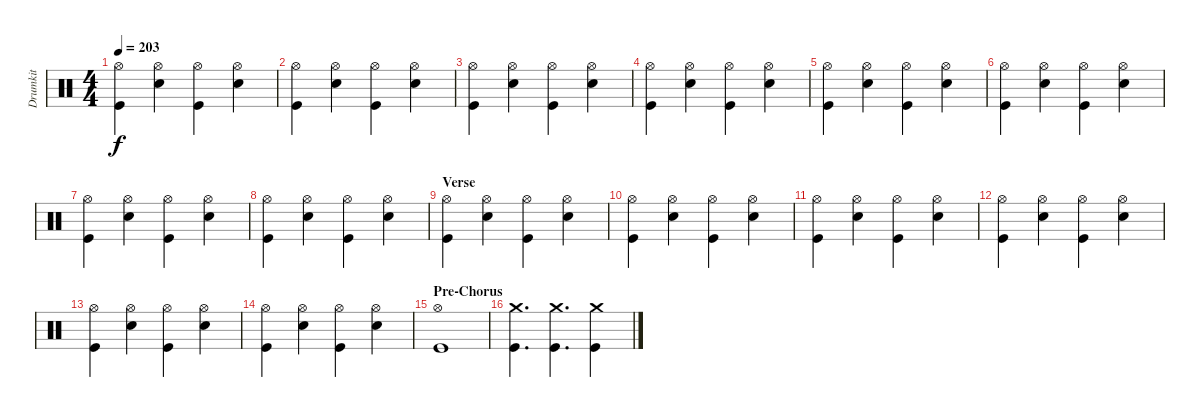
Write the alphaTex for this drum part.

\track ("Drumkit" "Drumkit") {instrument percussion}
\staff {score}
\articulation defaults
\ts (4 4)
\tempo 203
\clef neutral
\ks c
("Kick (hit)" "Hi-Hat (open)").4{dy f} ("Snare (hit) 2" "Hi-Hat (open)").4 ("Kick (hit)" "Hi-Hat (open)").4 ("Snare (hit) 2" "Hi-Hat (open)").4 |
("Kick (hit)" "Hi-Hat (open)").4 ("Snare (hit) 2" "Hi-Hat (open)").4 ("Kick (hit)" "Hi-Hat (open)").4 ("Snare (hit) 2" "Hi-Hat (open)").4 |
("Kick (hit)" "Hi-Hat (open)").4 ("Snare (hit) 2" "Hi-Hat (open)").4 ("Kick (hit)" "Hi-Hat (open)").4 ("Snare (hit) 2" "Hi-Hat (open)").4 |
("Kick (hit)" "Hi-Hat (open)").4 ("Snare (hit) 2" "Hi-Hat (open)").4 ("Kick (hit)" "Hi-Hat (open)").4 ("Snare (hit) 2" "Hi-Hat (open)").4 |
("Kick (hit)" "Hi-Hat (open)").4 ("Snare (hit) 2" "Hi-Hat (open)").4 ("Kick (hit)" "Hi-Hat (open)").4 ("Snare (hit) 2" "Hi-Hat (open)").4 |
("Kick (hit)" "Hi-Hat (open)").4 ("Snare (hit) 2" "Hi-Hat (open)").4 ("Kick (hit)" "Hi-Hat (open)").4 ("Snare (hit) 2" "Hi-Hat (open)").4 |
("Kick (hit)" "Hi-Hat (open)").4 ("Snare (hit) 2" "Hi-Hat (open)").4 ("Kick (hit)" "Hi-Hat (open)").4 ("Snare (hit) 2" "Hi-Hat (open)").4 |
("Kick (hit)" "Hi-Hat (open)").4 ("Snare (hit) 2" "Hi-Hat (open)").4 ("Kick (hit)" "Hi-Hat (open)").4 ("Snare (hit) 2" "Hi-Hat (open)").4 |
\section ("" "Verse")
("Kick (hit)" "Hi-Hat (open)").4 ("Snare (hit) 2" "Hi-Hat (open)").4 ("Kick (hit)" "Hi-Hat (open)").4 ("Snare (hit) 2" "Hi-Hat (open)").4 |
("Kick (hit)" "Hi-Hat (open)").4 ("Snare (hit) 2" "Hi-Hat (open)").4 ("Kick (hit)" "Hi-Hat (open)").4 ("Snare (hit) 2" "Hi-Hat (open)").4 |
("Kick (hit)" "Hi-Hat (open)").4 ("Snare (hit) 2" "Hi-Hat (open)").4 ("Kick (hit)" "Hi-Hat (open)").4 ("Snare (hit) 2" "Hi-Hat (open)").4 |
("Kick (hit)" "Hi-Hat (open)").4 ("Snare (hit) 2" "Hi-Hat (open)").4 ("Kick (hit)" "Hi-Hat (open)").4 ("Snare (hit) 2" "Hi-Hat (open)").4 |
("Kick (hit)" "Hi-Hat (open)").4 ("Snare (hit) 2" "Hi-Hat (open)").4 ("Kick (hit)" "Hi-Hat (open)").4 ("Snare (hit) 2" "Hi-Hat (open)").4 |
("Kick (hit)" "Hi-Hat (open)").4 ("Snare (hit) 2" "Hi-Hat (open)").4 ("Kick (hit)" "Hi-Hat (open)").4 ("Snare (hit) 2" "Hi-Hat (open)").4 |
\section ("" "Pre-Chorus")
("Kick (hit)" "Hi-Hat (open)").1 |
("Kick (hit)" "Crash medium (hit)").4{d} ("Kick (hit)" "Crash medium (hit)").4{d} ("Kick (hit)" "Crash medium (hit)").4
